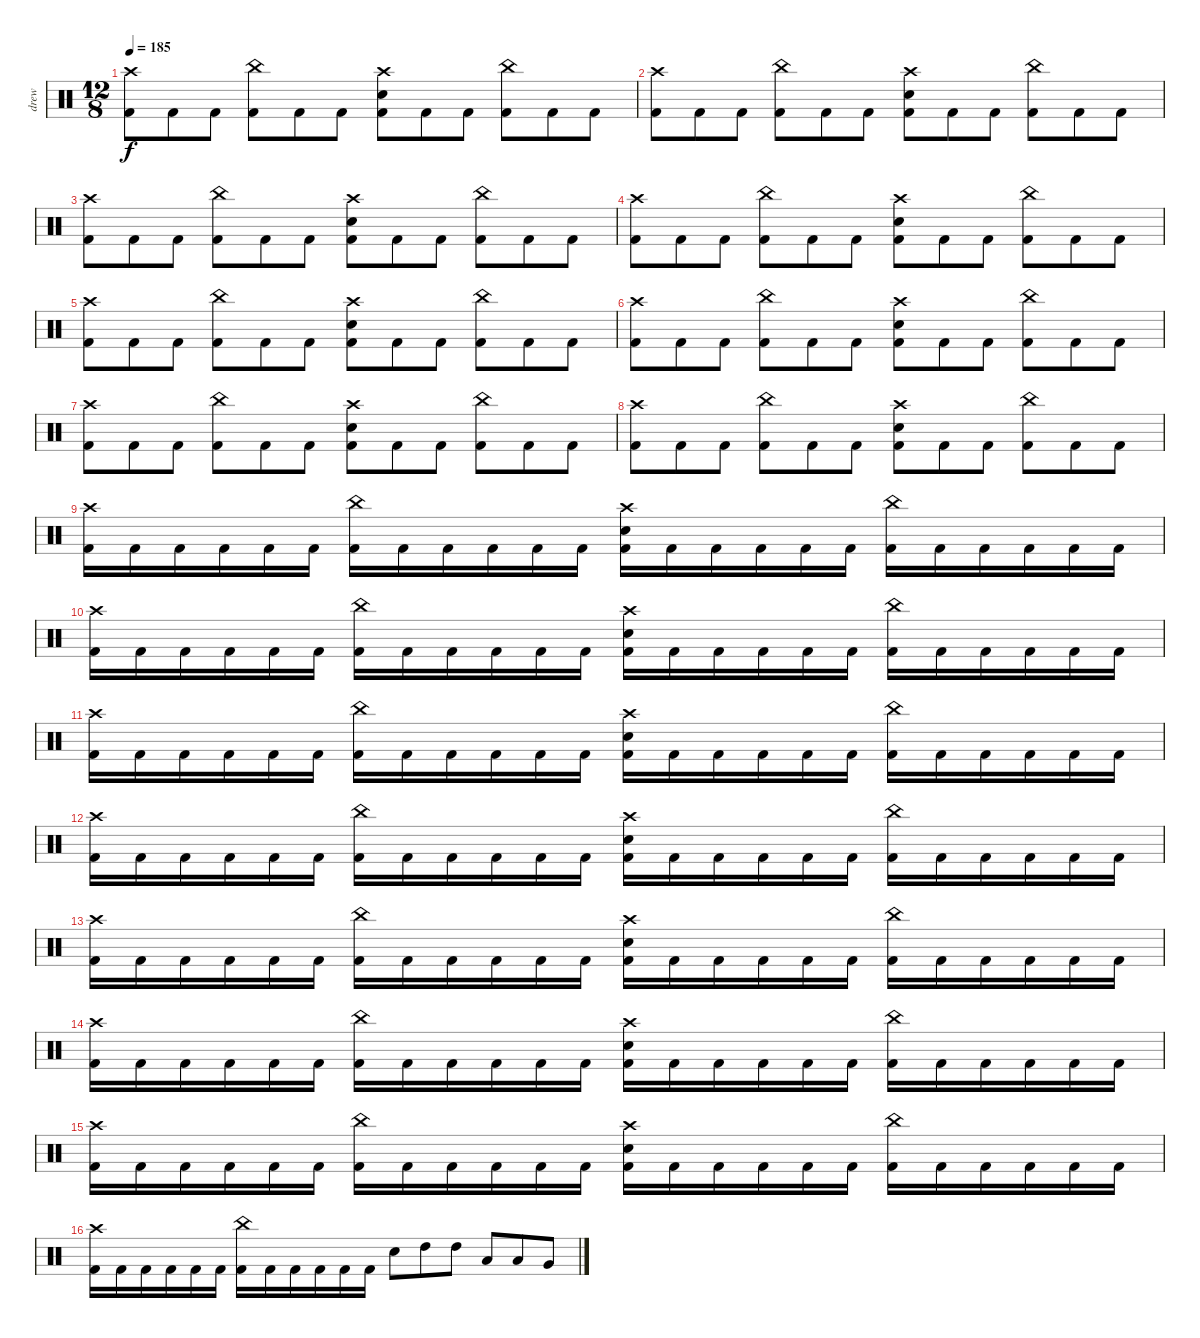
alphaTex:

\track ("drew" "drew") {instrument percussion}
\staff {score}
\articulation defaults
\ts (12 8)
\tempo 185
\clef neutral
\ks c
("Crash high (hit)" "Kick (hit) 2").8{dy f} "Kick (hit) 2".8 "Kick (hit) 2".8 ("China (hit)" "Kick (hit) 2").8 "Kick (hit) 2".8 "Kick (hit) 2".8 ("Crash high (hit)" "Snare (hit) 2" "Kick (hit) 2").8 "Kick (hit) 2".8 "Kick (hit) 2".8 ("China (hit)" "Kick (hit) 2").8 "Kick (hit) 2".8 "Kick (hit) 2".8 |
("Crash high (hit)" "Kick (hit) 2").8 "Kick (hit) 2".8 "Kick (hit) 2".8 ("China (hit)" "Kick (hit) 2").8 "Kick (hit) 2".8 "Kick (hit) 2".8 ("Crash high (hit)" "Snare (hit) 2" "Kick (hit) 2").8 "Kick (hit) 2".8 "Kick (hit) 2".8 ("China (hit)" "Kick (hit) 2").8 "Kick (hit) 2".8 "Kick (hit) 2".8 |
("Crash high (hit)" "Kick (hit) 2").8 "Kick (hit) 2".8 "Kick (hit) 2".8 ("China (hit)" "Kick (hit) 2").8 "Kick (hit) 2".8 "Kick (hit) 2".8 ("Crash high (hit)" "Snare (hit) 2" "Kick (hit) 2").8 "Kick (hit) 2".8 "Kick (hit) 2".8 ("China (hit)" "Kick (hit) 2").8 "Kick (hit) 2".8 "Kick (hit) 2".8 |
("Crash high (hit)" "Kick (hit) 2").8 "Kick (hit) 2".8 "Kick (hit) 2".8 ("China (hit)" "Kick (hit) 2").8 "Kick (hit) 2".8 "Kick (hit) 2".8 ("Crash high (hit)" "Snare (hit) 2" "Kick (hit) 2").8 "Kick (hit) 2".8 "Kick (hit) 2".8 ("China (hit)" "Kick (hit) 2").8 "Kick (hit) 2".8 "Kick (hit) 2".8 |
("Crash high (hit)" "Kick (hit) 2").8 "Kick (hit) 2".8 "Kick (hit) 2".8 ("China (hit)" "Kick (hit) 2").8 "Kick (hit) 2".8 "Kick (hit) 2".8 ("Crash high (hit)" "Snare (hit) 2" "Kick (hit) 2").8 "Kick (hit) 2".8 "Kick (hit) 2".8 ("China (hit)" "Kick (hit) 2").8 "Kick (hit) 2".8 "Kick (hit) 2".8 |
("Crash high (hit)" "Kick (hit) 2").8 "Kick (hit) 2".8 "Kick (hit) 2".8 ("China (hit)" "Kick (hit) 2").8 "Kick (hit) 2".8 "Kick (hit) 2".8 ("Crash high (hit)" "Snare (hit) 2" "Kick (hit) 2").8 "Kick (hit) 2".8 "Kick (hit) 2".8 ("China (hit)" "Kick (hit) 2").8 "Kick (hit) 2".8 "Kick (hit) 2".8 |
("Crash high (hit)" "Kick (hit) 2").8 "Kick (hit) 2".8 "Kick (hit) 2".8 ("China (hit)" "Kick (hit) 2").8 "Kick (hit) 2".8 "Kick (hit) 2".8 ("Crash high (hit)" "Snare (hit) 2" "Kick (hit) 2").8 "Kick (hit) 2".8 "Kick (hit) 2".8 ("China (hit)" "Kick (hit) 2").8 "Kick (hit) 2".8 "Kick (hit) 2".8 |
("Crash high (hit)" "Kick (hit) 2").8 "Kick (hit) 2".8 "Kick (hit) 2".8 ("China (hit)" "Kick (hit) 2").8 "Kick (hit) 2".8 "Kick (hit) 2".8 ("Crash high (hit)" "Snare (hit) 2" "Kick (hit) 2").8 "Kick (hit) 2".8 "Kick (hit) 2".8 ("China (hit)" "Kick (hit) 2").8 "Kick (hit) 2".8 "Kick (hit) 2".8 |
("Crash high (hit)" "Kick (hit) 2").16 "Kick (hit) 2".16 "Kick (hit) 2".16 "Kick (hit) 2".16 "Kick (hit) 2".16 "Kick (hit) 2".16 ("China (hit)" "Kick (hit) 2").16 "Kick (hit) 2".16 "Kick (hit) 2".16 "Kick (hit) 2".16 "Kick (hit) 2".16 "Kick (hit) 2".16 ("Crash high (hit)" "Snare (hit) 2" "Kick (hit) 2").16 "Kick (hit) 2".16 "Kick (hit) 2".16 "Kick (hit) 2".16 "Kick (hit) 2".16 "Kick (hit) 2".16 ("China (hit)" "Kick (hit) 2").16 "Kick (hit) 2".16 "Kick (hit) 2".16 "Kick (hit) 2".16 "Kick (hit) 2".16 "Kick (hit) 2".16 |
("Crash high (hit)" "Kick (hit) 2").16 "Kick (hit) 2".16 "Kick (hit) 2".16 "Kick (hit) 2".16 "Kick (hit) 2".16 "Kick (hit) 2".16 ("China (hit)" "Kick (hit) 2").16 "Kick (hit) 2".16 "Kick (hit) 2".16 "Kick (hit) 2".16 "Kick (hit) 2".16 "Kick (hit) 2".16 ("Crash high (hit)" "Snare (hit) 2" "Kick (hit) 2").16 "Kick (hit) 2".16 "Kick (hit) 2".16 "Kick (hit) 2".16 "Kick (hit) 2".16 "Kick (hit) 2".16 ("China (hit)" "Kick (hit) 2").16 "Kick (hit) 2".16 "Kick (hit) 2".16 "Kick (hit) 2".16 "Kick (hit) 2".16 "Kick (hit) 2".16 |
("Crash high (hit)" "Kick (hit) 2").16 "Kick (hit) 2".16 "Kick (hit) 2".16 "Kick (hit) 2".16 "Kick (hit) 2".16 "Kick (hit) 2".16 ("China (hit)" "Kick (hit) 2").16 "Kick (hit) 2".16 "Kick (hit) 2".16 "Kick (hit) 2".16 "Kick (hit) 2".16 "Kick (hit) 2".16 ("Crash high (hit)" "Snare (hit) 2" "Kick (hit) 2").16 "Kick (hit) 2".16 "Kick (hit) 2".16 "Kick (hit) 2".16 "Kick (hit) 2".16 "Kick (hit) 2".16 ("China (hit)" "Kick (hit) 2").16 "Kick (hit) 2".16 "Kick (hit) 2".16 "Kick (hit) 2".16 "Kick (hit) 2".16 "Kick (hit) 2".16 |
("Crash high (hit)" "Kick (hit) 2").16 "Kick (hit) 2".16 "Kick (hit) 2".16 "Kick (hit) 2".16 "Kick (hit) 2".16 "Kick (hit) 2".16 ("China (hit)" "Kick (hit) 2").16 "Kick (hit) 2".16 "Kick (hit) 2".16 "Kick (hit) 2".16 "Kick (hit) 2".16 "Kick (hit) 2".16 ("Crash high (hit)" "Snare (hit) 2" "Kick (hit) 2").16 "Kick (hit) 2".16 "Kick (hit) 2".16 "Kick (hit) 2".16 "Kick (hit) 2".16 "Kick (hit) 2".16 ("China (hit)" "Kick (hit) 2").16 "Kick (hit) 2".16 "Kick (hit) 2".16 "Kick (hit) 2".16 "Kick (hit) 2".16 "Kick (hit) 2".16 |
("Crash high (hit)" "Kick (hit) 2").16 "Kick (hit) 2".16 "Kick (hit) 2".16 "Kick (hit) 2".16 "Kick (hit) 2".16 "Kick (hit) 2".16 ("China (hit)" "Kick (hit) 2").16 "Kick (hit) 2".16 "Kick (hit) 2".16 "Kick (hit) 2".16 "Kick (hit) 2".16 "Kick (hit) 2".16 ("Crash high (hit)" "Snare (hit) 2" "Kick (hit) 2").16 "Kick (hit) 2".16 "Kick (hit) 2".16 "Kick (hit) 2".16 "Kick (hit) 2".16 "Kick (hit) 2".16 ("China (hit)" "Kick (hit) 2").16 "Kick (hit) 2".16 "Kick (hit) 2".16 "Kick (hit) 2".16 "Kick (hit) 2".16 "Kick (hit) 2".16 |
("Crash high (hit)" "Kick (hit) 2").16 "Kick (hit) 2".16 "Kick (hit) 2".16 "Kick (hit) 2".16 "Kick (hit) 2".16 "Kick (hit) 2".16 ("China (hit)" "Kick (hit) 2").16 "Kick (hit) 2".16 "Kick (hit) 2".16 "Kick (hit) 2".16 "Kick (hit) 2".16 "Kick (hit) 2".16 ("Crash high (hit)" "Snare (hit) 2" "Kick (hit) 2").16 "Kick (hit) 2".16 "Kick (hit) 2".16 "Kick (hit) 2".16 "Kick (hit) 2".16 "Kick (hit) 2".16 ("China (hit)" "Kick (hit) 2").16 "Kick (hit) 2".16 "Kick (hit) 2".16 "Kick (hit) 2".16 "Kick (hit) 2".16 "Kick (hit) 2".16 |
("Crash high (hit)" "Kick (hit) 2").16 "Kick (hit) 2".16 "Kick (hit) 2".16 "Kick (hit) 2".16 "Kick (hit) 2".16 "Kick (hit) 2".16 ("China (hit)" "Kick (hit) 2").16 "Kick (hit) 2".16 "Kick (hit) 2".16 "Kick (hit) 2".16 "Kick (hit) 2".16 "Kick (hit) 2".16 ("Crash high (hit)" "Snare (hit) 2" "Kick (hit) 2").16 "Kick (hit) 2".16 "Kick (hit) 2".16 "Kick (hit) 2".16 "Kick (hit) 2".16 "Kick (hit) 2".16 ("China (hit)" "Kick (hit) 2").16 "Kick (hit) 2".16 "Kick (hit) 2".16 "Kick (hit) 2".16 "Kick (hit) 2".16 "Kick (hit) 2".16 |
("Crash high (hit)" "Kick (hit) 2").16 "Kick (hit) 2".16 "Kick (hit) 2".16 "Kick (hit) 2".16 "Kick (hit) 2".16 "Kick (hit) 2".16 ("China (hit)" "Kick (hit) 2").16 "Kick (hit) 2".16 "Kick (hit) 2".16 "Kick (hit) 2".16 "Kick (hit) 2".16 "Kick (hit) 2".16 "Snare (hit) 2".8 "High Tom (hit)".8 "High Tom (hit)".8 "Low Tom (hit)".8 "Low Tom (hit)".8 "Very Low Tom (hit)".8
